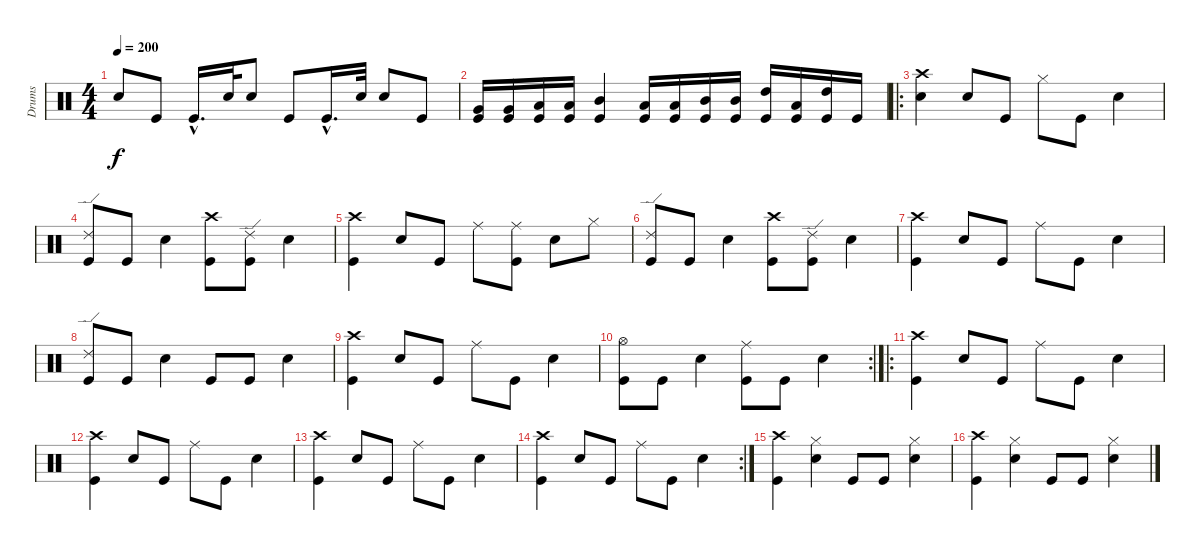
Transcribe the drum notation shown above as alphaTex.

\track ("Drums" "Drums") {instrument percussion}
\staff {score}
\articulation defaults
\ts (4 4)
\tempo 200
\clef neutral
\ks c "Snare (hit) 2".8{dy f} "Kick (hit)".8 "Kick (hit)"{hac}.16{d} "Snare (hit) 2".32 "Snare (hit) 2".8 "Kick (hit)".8 "Kick (hit)"{hac}.16{d} "Snare (hit) 2".32 "Snare (hit) 2".8 "Kick (hit)".8
|
("Very Low Tom (hit)" "Kick (hit)").16 ("Very Low Tom (hit)" "Kick (hit)").16 ("Low Tom (hit)" "Kick (hit)").16 ("Low Tom (hit)" "Kick (hit)").16 ("Mid Tom (hit)" "Kick (hit)").4 ("Low Tom (hit)" "Kick (hit)").16 ("Low Tom (hit)" "Kick (hit)").16 ("Mid Tom (hit)" "Kick (hit)").16 ("Mid Tom (hit)" "Kick (hit)").16 ("High Tom (hit)" "Kick (hit)").16 ("Low Tom (hit)" "Kick (hit)").16 ("High Tom (hit)" "Kick (hit)").16 "Kick (hit)".16 |
\ro
("Crash high (hit)" "Snare (hit) 2").4 "Snare (hit) 2".8 "Kick (hit)".8 "Hi-Hat (closed)".8 "Kick (hit)".8 "Snare (hit) 2".4 |
("Ride (edge) 2" "Kick (hit)").8 "Kick (hit)".8 "Snare (hit) 2".4 ("Crash high (hit)" "Kick (hit)").8 ("Ride (edge) 2" "Kick (hit)").8 "Snare (hit) 2".4 |
("Crash high (hit)" "Kick (hit)").4 "Snare (hit) 2".8 "Kick (hit)".8 "Ride (middle)".8 ("Ride (middle)" "Kick (hit)").8 "Snare (hit) 2".8 "Hi-Hat (closed)".8 |
("Ride (edge) 2" "Kick (hit)").8 "Kick (hit)".8 "Snare (hit) 2".4 ("Crash high (hit)" "Kick (hit)").8 ("Ride (edge) 2" "Kick (hit)").8 "Snare (hit) 2".4 |
("Crash high (hit)" "Kick (hit)").4 "Snare (hit) 2".8 "Kick (hit)".8 "Ride (middle)".8 "Kick (hit)".8 "Snare (hit) 2".4 |
("Ride (edge) 2" "Kick (hit)").8 "Kick (hit)".8 "Snare (hit) 2".4 "Kick (hit)".8 "Kick (hit)".8 "Snare (hit) 2".4 |
("Crash high (hit)" "Kick (hit)").4 "Snare (hit) 2".8 "Kick (hit)".8 "Ride (middle)".8 "Kick (hit)".8 "Snare (hit) 2".4 |
\rc 2
("Hi-Hat (open)" "Kick (hit)").8 "Kick (hit)".8 "Snare (hit) 2".4 ("Ride (middle)" "Kick (hit)").8 "Kick (hit)".8 "Snare (hit) 2".4 |
\ro
("Crash high (hit)" "Kick (hit)").4 "Snare (hit) 2".8 "Kick (hit)".8 "Ride (middle)".8 "Kick (hit)".8 "Snare (hit) 2".4 |
("Crash high (hit)" "Kick (hit)").4 "Snare (hit) 2".8 "Kick (hit)".8 "Ride (middle)".8 "Kick (hit)".8 "Snare (hit) 2".4 |
("Crash high (hit)" "Kick (hit)").4 "Snare (hit) 2".8 "Kick (hit)".8 "Ride (middle)".8 "Kick (hit)".8 "Snare (hit) 2".4 |
\rc 2
("Crash high (hit)" "Kick (hit)").4 "Snare (hit) 2".8 "Kick (hit)".8 "Ride (middle)".8 "Kick (hit)".8 "Snare (hit) 2".4 |
("Crash high (hit)" "Kick (hit)").4 ("Hi-Hat (closed)" "Snare (hit) 2").4 "Kick (hit)".8 "Kick (hit)".8 ("Hi-Hat (closed)" "Snare (hit) 2").4 |
("Crash high (hit)" "Kick (hit)").4 ("Hi-Hat (closed)" "Snare (hit) 2").4 "Kick (hit)".8 "Kick (hit)".8 ("Hi-Hat (closed)" "Snare (hit) 2").4
